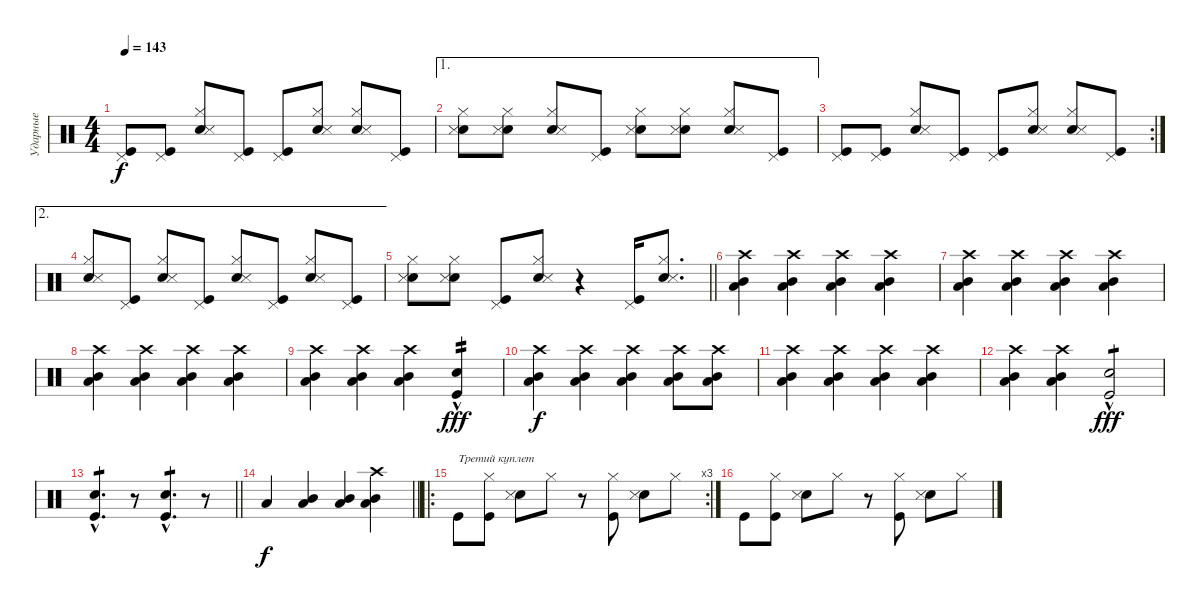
\track ("Ударные" "Ударные") {instrument percussion}
\staff {score}
\articulation defaults
\ts (4 4)
\tempo 143
\clef neutral
\ks c
("Kick (hit)" "Pedal Hi-Hat (hit)").8{dy f} ("Kick (hit)" "Pedal Hi-Hat (hit)").8 ("Snare (hit) 2" "Hi-Hat (closed)" "Snare (side stick) 3").8 ("Kick (hit)" "Pedal Hi-Hat (hit)").8 ("Kick (hit)" "Pedal Hi-Hat (hit)").8 ("Snare (hit) 2" "Hi-Hat (closed)" "Snare (side stick) 3").8 ("Snare (hit) 2" "Hi-Hat (closed)" "Snare (side stick) 3").8 ("Kick (hit)" "Pedal Hi-Hat (hit)").8 |
\ae 1
("Snare (hit) 2" "Hi-Hat (closed)" "Snare (side stick) 3").8 ("Snare (hit) 2" "Hi-Hat (closed)" "Snare (side stick) 3").8 ("Snare (hit) 2" "Hi-Hat (closed)" "Snare (side stick) 3").8 ("Kick (hit)" "Pedal Hi-Hat (hit)").8 ("Snare (hit) 2" "Hi-Hat (closed)" "Snare (side stick) 3").8 ("Snare (hit) 2" "Hi-Hat (closed)" "Snare (side stick) 3").8 ("Snare (hit) 2" "Hi-Hat (closed)" "Snare (side stick) 3").8 ("Kick (hit)" "Pedal Hi-Hat (hit)").8 |
\rc 2
("Kick (hit)" "Pedal Hi-Hat (hit)").8 ("Kick (hit)" "Pedal Hi-Hat (hit)").8 ("Snare (hit) 2" "Hi-Hat (closed)" "Snare (side stick) 3").8 ("Kick (hit)" "Pedal Hi-Hat (hit)").8 ("Kick (hit)" "Pedal Hi-Hat (hit)").8 ("Snare (hit) 2" "Hi-Hat (closed)" "Snare (side stick) 3").8 ("Snare (hit) 2" "Hi-Hat (closed)" "Snare (side stick) 3").8 ("Kick (hit)" "Pedal Hi-Hat (hit)").8 |
\ae 2
("Snare (hit) 2" "Hi-Hat (closed)" "Snare (side stick) 3").8 ("Kick (hit)" "Pedal Hi-Hat (hit)").8 ("Snare (hit) 2" "Hi-Hat (closed)" "Snare (side stick) 3").8 ("Kick (hit)" "Pedal Hi-Hat (hit)").8 ("Snare (hit) 2" "Hi-Hat (closed)" "Snare (side stick) 3").8 ("Kick (hit)" "Pedal Hi-Hat (hit)").8 ("Snare (hit) 2" "Hi-Hat (closed)" "Snare (side stick) 3").8 ("Kick (hit)" "Pedal Hi-Hat (hit)").8 |
\barLineRight lightlight
("Snare (hit) 2" "Hi-Hat (closed)" "Snare (side stick) 3").8 ("Snare (hit) 2" "Hi-Hat (closed)" "Snare (side stick) 3").8 ("Kick (hit)" "Pedal Hi-Hat (hit)").8 ("Snare (hit) 2" "Hi-Hat (closed)" "Snare (side stick) 3").8 r.4 ("Kick (hit)" "Pedal Hi-Hat (hit)").16 ("Snare (hit) 2" "Hi-Hat (closed)" "Snare (side stick) 3").8{d} |
("Low Tom (hit)" "Mid Tom (hit)" "Crash high (hit)").4 ("Low Tom (hit)" "Mid Tom (hit)" "Crash high (hit)").4 ("Low Tom (hit)" "Mid Tom (hit)" "Crash high (hit)").4 ("Low Tom (hit)" "Mid Tom (hit)" "Crash high (hit)").4 |
("Low Tom (hit)" "Mid Tom (hit)" "Crash high (hit)").4 ("Low Tom (hit)" "Mid Tom (hit)" "Crash high (hit)").4 ("Low Tom (hit)" "Mid Tom (hit)" "Crash high (hit)").4 ("Low Tom (hit)" "Mid Tom (hit)" "Crash high (hit)").4 |
("Low Tom (hit)" "Mid Tom (hit)" "Crash high (hit)").4 ("Low Tom (hit)" "Mid Tom (hit)" "Crash high (hit)").4 ("Low Tom (hit)" "Mid Tom (hit)" "Crash high (hit)").4 ("Low Tom (hit)" "Mid Tom (hit)" "Crash high (hit)").4 |
("Low Tom (hit)" "Mid Tom (hit)" "Crash high (hit)").4 ("Low Tom (hit)" "Mid Tom (hit)" "Crash high (hit)").4 ("Low Tom (hit)" "Mid Tom (hit)" "Crash high (hit)").4 ("Snare (hit) 2"{hac} "Kick (hit)"{hac}).4{tp 2 dy fff} |
("Low Tom (hit)" "Mid Tom (hit)" "Crash high (hit)").4{dy f} ("Low Tom (hit)" "Mid Tom (hit)" "Crash high (hit)").4 ("Low Tom (hit)" "Mid Tom (hit)" "Crash high (hit)").4 ("Low Tom (hit)" "Mid Tom (hit)" "Crash high (hit)").8 ("Low Tom (hit)" "Mid Tom (hit)" "Crash high (hit)").8 |
("Low Tom (hit)" "Mid Tom (hit)" "Crash high (hit)").4 ("Low Tom (hit)" "Mid Tom (hit)" "Crash high (hit)").4 ("Low Tom (hit)" "Mid Tom (hit)" "Crash high (hit)").4 ("Low Tom (hit)" "Mid Tom (hit)" "Crash high (hit)").4 |
("Low Tom (hit)" "Mid Tom (hit)" "Crash high (hit)").4 ("Low Tom (hit)" "Mid Tom (hit)" "Crash high (hit)").4 ("Snare (hit) 2"{hac} "Kick (hit)"{hac}).2{tp 1 dy fff} |
\barLineRight lightlight
("Snare (hit) 2"{hac} "Kick (hit)"{hac}).4{d tp 1} r.8 ("Snare (hit) 2"{hac} "Kick (hit)"{hac}).4{d tp 1} r.8 |
\barLineRight lightlight "Low Tom (hit)".4{dy f}
("Low Tom (hit)" "Mid Tom (hit)").4 ("Low Tom (hit)" "Mid Tom (hit)").4 ("Low Tom (hit)" "Mid Tom (hit)" "Crash high (hit)").4 |
\ro
\rc 3 "Kick (hit)".8{txt "Третий куплет"}
("Kick (hit)" "Hi-Hat (closed)").8 ("Snare (hit) 2" "Snare (side stick) 3").8 "Hi-Hat (closed)".8 r.8 ("Kick (hit)" "Hi-Hat (closed)").8 ("Snare (hit) 2" "Snare (side stick) 3").8 "Hi-Hat (closed)".8 |
"Kick (hit)".8 ("Kick (hit)" "Hi-Hat (closed)").8 ("Snare (hit) 2" "Snare (side stick) 3").8 "Hi-Hat (closed)".8 r.8 ("Kick (hit)" "Hi-Hat (closed)").8 ("Snare (hit) 2" "Snare (side stick) 3").8 "Hi-Hat (closed)".8
